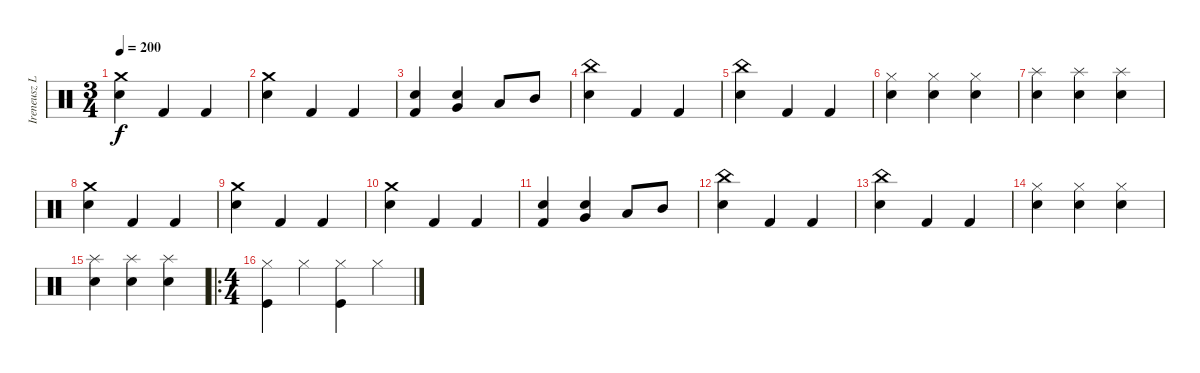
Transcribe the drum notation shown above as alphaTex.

\track ("Ireneusz Loth -Drums" "Ireneusz L") {instrument percussion}
\staff {score}
\articulation defaults
\ts (3 4)
\tempo 200
\clef neutral
\ks c
("Snare (hit) 2" "Crash medium (hit)").4{dy f} "Kick (hit) 2".4 "Kick (hit) 2".4 |
("Snare (hit) 2" "Crash medium (hit)").4 "Kick (hit) 2".4 "Kick (hit) 2".4 |
("Snare (hit) 2" "Kick (hit) 2").4 ("Very Low Tom (hit)" "Snare (hit) 2").4 "Low Tom (hit)".8 "Mid Tom (hit)".8 |
("China (hit)" "Snare (hit) 2").4 "Kick (hit) 2".4 "Kick (hit) 2".4 |
("China (hit)" "Snare (hit) 2").4 "Kick (hit) 2".4 "Kick (hit) 2".4 |
("Hi-Hat (closed)" "Snare (hit) 2").4 ("Hi-Hat (closed)" "Snare (hit) 2").4 ("Hi-Hat (closed)" "Snare (hit) 2").4 |
("Splash (hit)" "Snare (hit) 2").4 ("Splash (hit)" "Snare (hit) 2").4 ("Splash (hit)" "Snare (hit) 2").4 |
("Snare (hit) 2" "Crash medium (hit)").4 "Kick (hit) 2".4 "Kick (hit) 2".4 |
("Snare (hit) 2" "Crash medium (hit)").4 "Kick (hit) 2".4 "Kick (hit) 2".4 |
("Snare (hit) 2" "Crash medium (hit)").4 "Kick (hit) 2".4 "Kick (hit) 2".4 |
("Snare (hit) 2" "Kick (hit) 2").4 ("Very Low Tom (hit)" "Snare (hit) 2").4 "Low Tom (hit)".8 "Mid Tom (hit)".8 |
("China (hit)" "Snare (hit) 2").4 "Kick (hit) 2".4 "Kick (hit) 2".4 |
("China (hit)" "Snare (hit) 2").4 "Kick (hit) 2".4 "Kick (hit) 2".4 |
("Hi-Hat (closed)" "Snare (hit) 2").4 ("Hi-Hat (closed)" "Snare (hit) 2").4 ("Hi-Hat (closed)" "Snare (hit) 2").4 |
("Splash (hit)" "Snare (hit) 2").4 ("Splash (hit)" "Snare (hit) 2").4 ("Splash (hit)" "Snare (hit) 2").4 |
\ro
\ts (4 4)
("Hi-Hat (closed)" "Kick (hit)").4 "Hi-Hat (closed)".4 ("Hi-Hat (closed)" "Kick (hit)").4 "Hi-Hat (closed)".4
